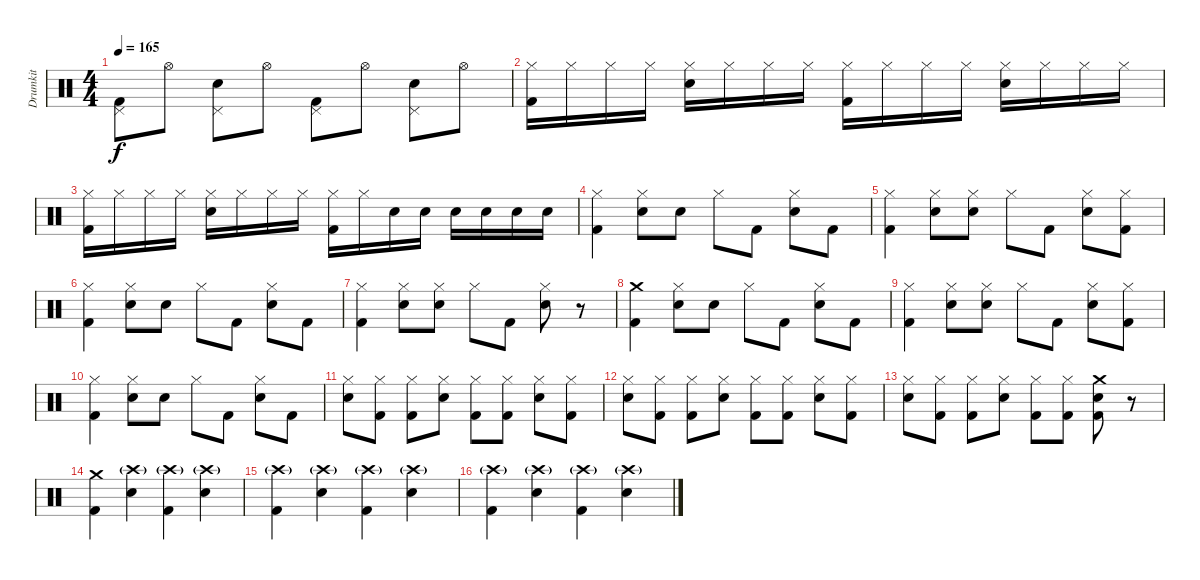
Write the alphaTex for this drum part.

\track ("Drumkit" "Drumkit") {instrument percussion}
\staff {score}
\articulation defaults
\ts (4 4)
\tempo 165
\clef neutral
\ks c
("Pedal Hi-Hat (hit)" "Kick (hit) 2").8{dy f} "Hi-Hat (open)".8 ("Pedal Hi-Hat (hit)" "Snare (hit) 2").8 "Hi-Hat (open)".8 ("Pedal Hi-Hat (hit)" "Kick (hit) 2").8 "Hi-Hat (open)".8 ("Pedal Hi-Hat (hit)" "Snare (hit) 2").8 "Hi-Hat (open)".8 |
("Hi-Hat (closed)" "Kick (hit) 2").16 "Hi-Hat (closed)".16 "Hi-Hat (closed)".16 "Hi-Hat (closed)".16 ("Hi-Hat (closed)" "Snare (hit) 2").16 "Hi-Hat (closed)".16 "Hi-Hat (closed)".16 "Hi-Hat (closed)".16 ("Hi-Hat (closed)" "Kick (hit) 2").16 "Hi-Hat (closed)".16 "Hi-Hat (closed)".16 "Hi-Hat (closed)".16 ("Hi-Hat (closed)" "Snare (hit) 2").16 "Hi-Hat (closed)".16 "Hi-Hat (closed)".16 "Hi-Hat (closed)".16 |
("Hi-Hat (closed)" "Kick (hit) 2").16 "Hi-Hat (closed)".16 "Hi-Hat (closed)".16 "Hi-Hat (closed)".16 ("Hi-Hat (closed)" "Snare (hit) 2").16 "Hi-Hat (closed)".16 "Hi-Hat (closed)".16 "Hi-Hat (closed)".16 ("Hi-Hat (closed)" "Kick (hit) 2").16 "Hi-Hat (closed)".16 "Snare (hit) 2".16 "Snare (hit) 2".16 "Snare (hit) 2".16 "Snare (hit) 2".16 "Snare (hit) 2".16 "Snare (hit) 2".16 |
("Hi-Hat (closed)" "Kick (hit) 2").4 ("Hi-Hat (closed)" "Snare (hit) 2").8 "Snare (hit) 2".8 "Hi-Hat (closed)".8 "Kick (hit) 2".8 ("Hi-Hat (closed)" "Snare (hit) 2").8 "Kick (hit) 2".8 |
("Hi-Hat (closed)" "Kick (hit) 2").4 ("Hi-Hat (closed)" "Snare (hit) 2").8 ("Hi-Hat (closed)" "Snare (hit) 2").8 "Hi-Hat (closed)".8 "Kick (hit) 2".8 ("Hi-Hat (closed)" "Snare (hit) 2").8 ("Hi-Hat (closed)" "Kick (hit) 2").8 |
("Hi-Hat (closed)" "Kick (hit) 2").4 ("Hi-Hat (closed)" "Snare (hit) 2").8 "Snare (hit) 2".8 "Hi-Hat (closed)".8 "Kick (hit) 2".8 ("Hi-Hat (closed)" "Snare (hit) 2").8 "Kick (hit) 2".8 |
("Hi-Hat (closed)" "Kick (hit) 2").4 ("Hi-Hat (closed)" "Snare (hit) 2").8 ("Hi-Hat (closed)" "Snare (hit) 2").8 "Hi-Hat (closed)".8 "Kick (hit) 2".8 ("Hi-Hat (closed)" "Snare (hit) 2").8 r.8 |
("Crash medium (hit)" "Kick (hit) 2").4 ("Hi-Hat (closed)" "Snare (hit) 2").8 "Snare (hit) 2".8 "Hi-Hat (closed)".8 "Kick (hit) 2".8 ("Hi-Hat (closed)" "Snare (hit) 2").8 "Kick (hit) 2".8 |
("Hi-Hat (closed)" "Kick (hit) 2").4 ("Hi-Hat (closed)" "Snare (hit) 2").8 ("Hi-Hat (closed)" "Snare (hit) 2").8 "Hi-Hat (closed)".8 "Kick (hit) 2".8 ("Hi-Hat (closed)" "Snare (hit) 2").8 ("Hi-Hat (closed)" "Kick (hit) 2").8 |
("Hi-Hat (closed)" "Kick (hit) 2").4 ("Hi-Hat (closed)" "Snare (hit) 2").8 "Snare (hit) 2".8 "Hi-Hat (closed)".8 "Kick (hit) 2".8 ("Hi-Hat (closed)" "Snare (hit) 2").8 "Kick (hit) 2".8 |
("Hi-Hat (closed)" "Snare (hit) 2").8 ("Hi-Hat (closed)" "Kick (hit) 2").8 ("Hi-Hat (closed)" "Kick (hit) 2").8 ("Hi-Hat (closed)" "Snare (hit) 2").8 ("Hi-Hat (closed)" "Kick (hit) 2").8 ("Hi-Hat (closed)" "Kick (hit) 2").8 ("Hi-Hat (closed)" "Snare (hit) 2").8 ("Hi-Hat (closed)" "Kick (hit) 2").8 |
("Hi-Hat (closed)" "Snare (hit) 2").8 ("Hi-Hat (closed)" "Kick (hit) 2").8 ("Hi-Hat (closed)" "Kick (hit) 2").8 ("Hi-Hat (closed)" "Snare (hit) 2").8 ("Hi-Hat (closed)" "Kick (hit) 2").8 ("Hi-Hat (closed)" "Kick (hit) 2").8 ("Hi-Hat (closed)" "Snare (hit) 2").8 ("Hi-Hat (closed)" "Kick (hit) 2").8 |
("Hi-Hat (closed)" "Snare (hit) 2").8 ("Hi-Hat (closed)" "Kick (hit) 2").8 ("Hi-Hat (closed)" "Kick (hit) 2").8 ("Hi-Hat (closed)" "Snare (hit) 2").8 ("Hi-Hat (closed)" "Kick (hit) 2").8 ("Hi-Hat (closed)" "Kick (hit) 2").8 ("Crash medium (hit)" "Snare (hit) 2" "Kick (hit) 2").8 r.8 |
("Crash medium (hit)" "Kick (hit) 2").4 ("Crash high (hit)"{g} "Snare (hit) 2").4 ("Crash high (hit)"{g} "Kick (hit) 2").4 ("Crash high (hit)"{g} "Snare (hit) 2").4 |
("Crash high (hit)"{g} "Kick (hit) 2").4 ("Crash high (hit)"{g} "Snare (hit) 2").4 ("Crash high (hit)"{g} "Kick (hit) 2").4 ("Crash high (hit)"{g} "Snare (hit) 2").4 |
("Crash high (hit)"{g} "Kick (hit) 2").4 ("Crash high (hit)"{g} "Snare (hit) 2").4 ("Crash high (hit)"{g} "Kick (hit) 2").4 ("Crash high (hit)"{g} "Snare (hit) 2").4
